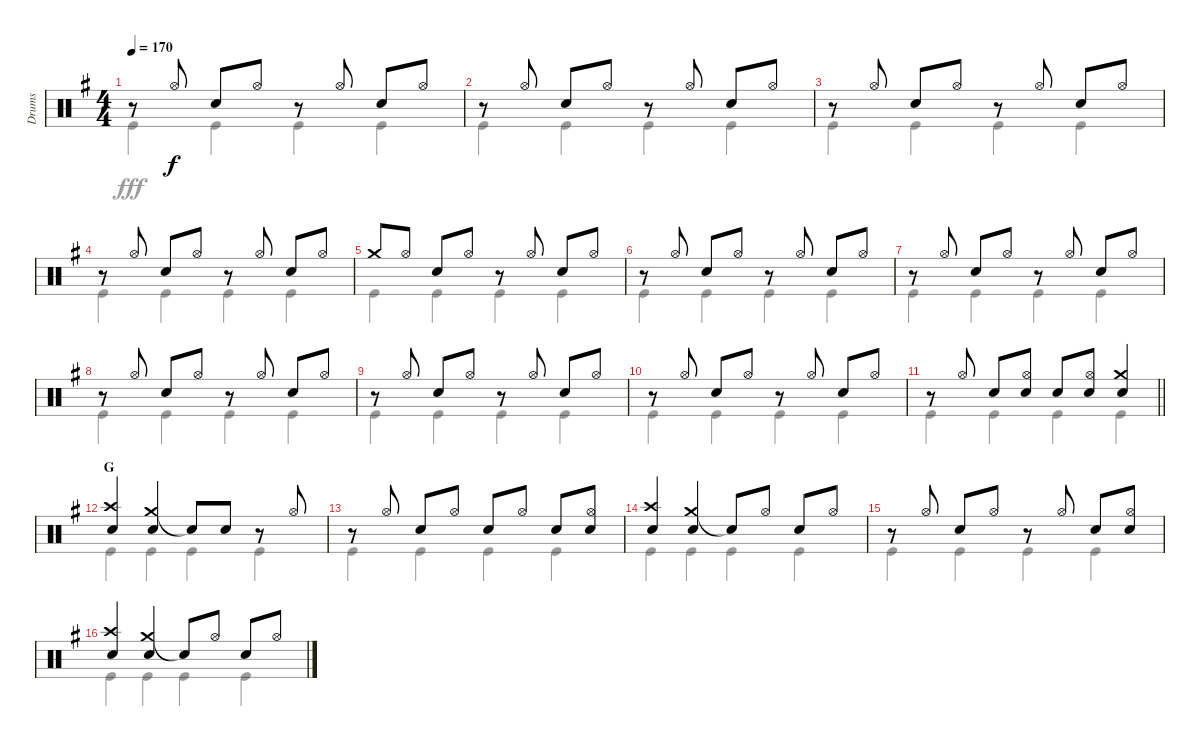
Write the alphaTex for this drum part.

\track ("Drums" "Drums") {instrument percussion}
\staff {score}
\articulation defaults
\voice
\ts (4 4)
\tempo 170
\clef neutral
\ks g
r.8{dy f} "Hi-Hat (open)".8 "Snare (hit) 2".8 "Hi-Hat (open)".8 r.8 "Hi-Hat (open)".8 "Snare (hit) 2".8 "Hi-Hat (open)".8 |
r.8 "Hi-Hat (open)".8 "Snare (hit) 2".8 "Hi-Hat (open)".8 r.8 "Hi-Hat (open)".8 "Snare (hit) 2".8 "Hi-Hat (open)".8 |
r.8 "Hi-Hat (open)".8 "Snare (hit) 2".8 "Hi-Hat (open)".8 r.8 "Hi-Hat (open)".8 "Snare (hit) 2".8 "Hi-Hat (open)".8 |
r.8 "Hi-Hat (open)".8 "Snare (hit) 2".8 "Hi-Hat (open)".8 r.8 "Hi-Hat (open)".8 "Snare (hit) 2".8 "Hi-Hat (open)".8 |
"Crash medium (hit)".8 "Hi-Hat (open)".8 "Snare (hit) 2".8 "Hi-Hat (open)".8 r.8 "Hi-Hat (open)".8 "Snare (hit) 2".8 "Hi-Hat (open)".8 |
r.8 "Hi-Hat (open)".8 "Snare (hit) 2".8 "Hi-Hat (open)".8 r.8 "Hi-Hat (open)".8 "Snare (hit) 2".8 "Hi-Hat (open)".8 |
r.8 "Hi-Hat (open)".8 "Snare (hit) 2".8 "Hi-Hat (open)".8 r.8 "Hi-Hat (open)".8 "Snare (hit) 2".8 "Hi-Hat (open)".8 |
r.8 "Hi-Hat (open)".8 "Snare (hit) 2".8 "Hi-Hat (open)".8 r.8 "Hi-Hat (open)".8 "Snare (hit) 2".8 "Hi-Hat (open)".8 |
r.8 "Hi-Hat (open)".8 "Snare (hit) 2".8 "Hi-Hat (open)".8 r.8 "Hi-Hat (open)".8 "Snare (hit) 2".8 "Hi-Hat (open)".8 |
r.8 "Hi-Hat (open)".8 "Snare (hit) 2".8 "Hi-Hat (open)".8 r.8 "Hi-Hat (open)".8 "Snare (hit) 2".8 "Hi-Hat (open)".8 |
\barLineRight lightlight
r.8 "Hi-Hat (open)".8 "Snare (hit) 2".8 ("Hi-Hat (open)" "Snare (hit) 2").8 "Snare (hit) 2".8 ("Hi-Hat (open)" "Snare (hit) 2").8 ("Crash medium (hit)" "Snare (hit) 2").4 |
\section ("" "G")
("Crash high (hit)" "Snare (hit) 2").4 ("Crash medium (hit)" "Snare (hit) 2").4 "Snare (hit)"{t}.8 "Snare (hit) 2".8 r.8 "Hi-Hat (open)".8 |
r.8 "Hi-Hat (open)".8 "Snare (hit) 2".8 "Hi-Hat (open)".8 "Snare (hit) 2".8 "Hi-Hat (open)".8 "Snare (hit) 2".8 ("Hi-Hat (open)" "Snare (hit) 2").8 |
("Crash high (hit)" "Snare (hit) 2").4 ("Crash medium (hit)" "Snare (hit) 2").4 "Snare (hit)"{t}.8 "Hi-Hat (open)".8 "Snare (hit) 2".8 "Hi-Hat (open)".8 |
r.8 "Hi-Hat (open)".8 "Snare (hit) 2".8 "Hi-Hat (open)".8 r.8 "Hi-Hat (open)".8 "Snare (hit) 2".8 ("Hi-Hat (open)" "Snare (hit) 2").8 |
("Crash high (hit)" "Snare (hit) 2").4 ("Crash medium (hit)" "Snare (hit) 2").4 "Snare (hit)"{t}.8 "Hi-Hat (open)".8 "Snare (hit) 2".8 "Hi-Hat (open)".8
\voice
\clef neutral
\ottava regular
\simile none
\ks g "Kick (hit)".4{dy fff} "Kick (hit)".4 "Kick (hit)".4 "Kick (hit)".4
|
"Kick (hit)".4 "Kick (hit)".4 "Kick (hit)".4 "Kick (hit)".4 |
"Kick (hit)".4 "Kick (hit)".4 "Kick (hit)".4 "Kick (hit)".4 |
"Kick (hit)".4 "Kick (hit)".4 "Kick (hit)".4 "Kick (hit)".4 |
"Kick (hit)".4 "Kick (hit)".4 "Kick (hit)".4 "Kick (hit)".4 |
"Kick (hit)".4 "Kick (hit)".4 "Kick (hit)".4 "Kick (hit)".4 |
"Kick (hit)".4 "Kick (hit)".4 "Kick (hit)".4 "Kick (hit)".4 |
"Kick (hit)".4 "Kick (hit)".4 "Kick (hit)".4 "Kick (hit)".4 |
"Kick (hit)".4 "Kick (hit)".4 "Kick (hit)".4 "Kick (hit)".4 |
"Kick (hit)".4 "Kick (hit)".4 "Kick (hit)".4 "Kick (hit)".4 |
\barLineRight lightlight "Kick (hit)".4 "Kick (hit)".4 "Kick (hit)".4 "Kick (hit)".4
|
"Kick (hit)".4 "Kick (hit)".4 "Kick (hit)".4 "Kick (hit)".4 |
"Kick (hit)".4 "Kick (hit)".4 "Kick (hit)".4 "Kick (hit)".4 |
"Kick (hit)".4 "Kick (hit)".4 "Kick (hit)".4 "Kick (hit)".4 |
"Kick (hit)".4 "Kick (hit)".4 "Kick (hit)".4 "Kick (hit)".4 |
"Kick (hit)".4 "Kick (hit)".4 "Kick (hit)".4 "Kick (hit)".4
